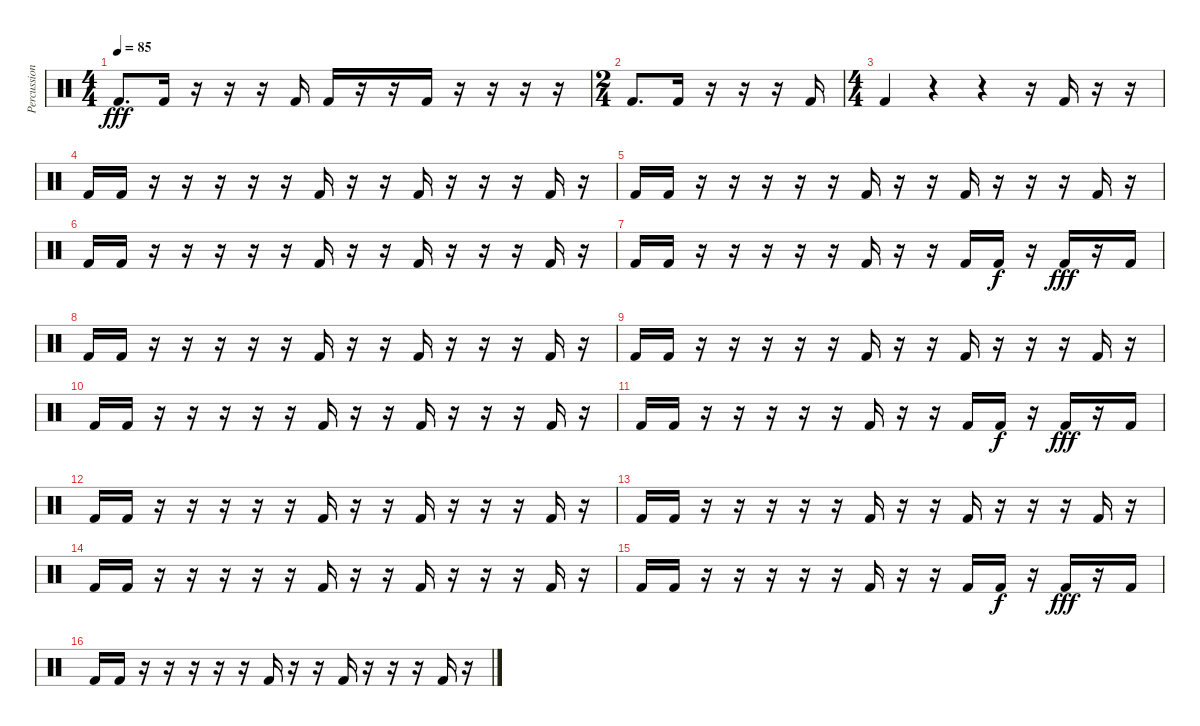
\track ("Percussion" "Percussion") {instrument percussion}
\staff {score}
\articulation defaults
\ts (4 4)
\tempo 85
\clef neutral
\ks c "Kick (hit) 2".8{d dy fff} "Kick (hit) 2".16
r.16 r.16 r.16 "Kick (hit) 2".16 "Kick (hit) 2".16 r.16 r.16 "Kick (hit) 2".16 r.16 r.16 r.16 r.16 |
\ts (2 4)
"Kick (hit) 2".8{d} "Kick (hit) 2".16 r.16 r.16 r.16 "Kick (hit) 2".16 |
\ts (4 4)
"Kick (hit) 2".4 r.4 r.4 r.16 "Kick (hit) 2".16 r.16 r.16 |
"Kick (hit) 2".16 "Kick (hit) 2".16 r.16 r.16 r.16 r.16 r.16 "Kick (hit) 2".16 r.16 r.16 "Kick (hit) 2".16 r.16 r.16 r.16 "Kick (hit) 2".16 r.16 |
"Kick (hit) 2".16 "Kick (hit) 2".16 r.16 r.16 r.16 r.16 r.16 "Kick (hit) 2".16 r.16 r.16 "Kick (hit) 2".16 r.16 r.16 r.16 "Kick (hit) 2".16 r.16 |
"Kick (hit) 2".16 "Kick (hit) 2".16 r.16 r.16 r.16 r.16 r.16 "Kick (hit) 2".16 r.16 r.16 "Kick (hit) 2".16 r.16 r.16 r.16 "Kick (hit) 2".16 r.16 |
"Kick (hit) 2".16 "Kick (hit) 2".16 r.16 r.16 r.16 r.16 r.16 "Kick (hit) 2".16 r.16 r.16 "Kick (hit) 2".16 "Kick (hit) 2".16{dy f} r.16 "Kick (hit) 2".16{dy fff} r.16 "Kick (hit) 2".16 |
"Kick (hit) 2".16 "Kick (hit) 2".16 r.16 r.16 r.16 r.16 r.16 "Kick (hit) 2".16 r.16 r.16 "Kick (hit) 2".16 r.16 r.16 r.16 "Kick (hit) 2".16 r.16 |
"Kick (hit) 2".16 "Kick (hit) 2".16 r.16 r.16 r.16 r.16 r.16 "Kick (hit) 2".16 r.16 r.16 "Kick (hit) 2".16 r.16 r.16 r.16 "Kick (hit) 2".16 r.16 |
"Kick (hit) 2".16 "Kick (hit) 2".16 r.16 r.16 r.16 r.16 r.16 "Kick (hit) 2".16 r.16 r.16 "Kick (hit) 2".16 r.16 r.16 r.16 "Kick (hit) 2".16 r.16 |
"Kick (hit) 2".16 "Kick (hit) 2".16 r.16 r.16 r.16 r.16 r.16 "Kick (hit) 2".16 r.16 r.16 "Kick (hit) 2".16 "Kick (hit) 2".16{dy f} r.16 "Kick (hit) 2".16{dy fff} r.16 "Kick (hit) 2".16 |
"Kick (hit) 2".16 "Kick (hit) 2".16 r.16 r.16 r.16 r.16 r.16 "Kick (hit) 2".16 r.16 r.16 "Kick (hit) 2".16 r.16 r.16 r.16 "Kick (hit) 2".16 r.16 |
"Kick (hit) 2".16 "Kick (hit) 2".16 r.16 r.16 r.16 r.16 r.16 "Kick (hit) 2".16 r.16 r.16 "Kick (hit) 2".16 r.16 r.16 r.16 "Kick (hit) 2".16 r.16 |
"Kick (hit) 2".16 "Kick (hit) 2".16 r.16 r.16 r.16 r.16 r.16 "Kick (hit) 2".16 r.16 r.16 "Kick (hit) 2".16 r.16 r.16 r.16 "Kick (hit) 2".16 r.16 |
"Kick (hit) 2".16 "Kick (hit) 2".16 r.16 r.16 r.16 r.16 r.16 "Kick (hit) 2".16 r.16 r.16 "Kick (hit) 2".16 "Kick (hit) 2".16{dy f} r.16 "Kick (hit) 2".16{dy fff} r.16 "Kick (hit) 2".16 |
"Kick (hit) 2".16 "Kick (hit) 2".16 r.16 r.16 r.16 r.16 r.16 "Kick (hit) 2".16 r.16 r.16 "Kick (hit) 2".16 r.16 r.16 r.16 "Kick (hit) 2".16 r.16
